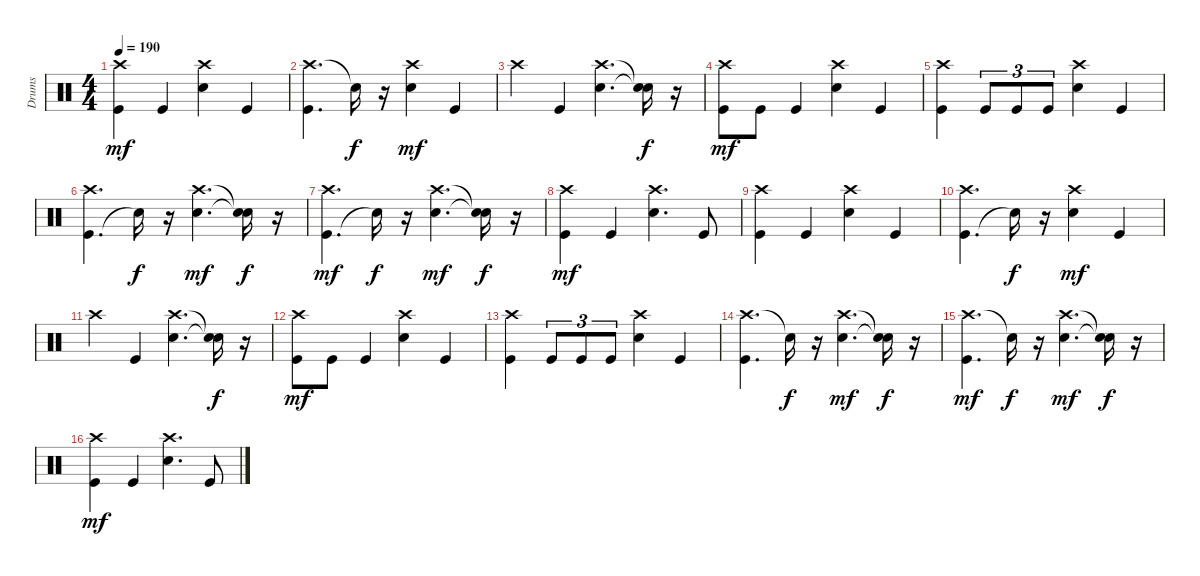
\track ("Drums" "Drums") {instrument percussion}
\staff {score}
\articulation defaults
\ts (4 4)
\tempo 190
\clef neutral
\ks c
("Crash high (hit)" "Kick (hit)").4{dy mf} "Kick (hit)".4 ("Snare (hit) 2" "Crash high (hit)").4 "Kick (hit)".4 |
("Crash high (hit)" "Kick (hit)").4{d} "Snare (hit)"{t}.16{dy f} r.16 ("Snare (hit) 2" "Crash high (hit)").4{dy mf} "Kick (hit)".4 |
"Crash high (hit)".4 "Kick (hit)".4 ("Snare (hit) 2" "Crash high (hit)").4{d} ("Snare (hit)"{t} "Snare (hit)"{t}).16{dy f} r.16 |
("Kick (hit)" "Crash high (hit)").8{dy mf} "Kick (hit)".8 "Kick (hit)".4 ("Snare (hit) 2" "Crash high (hit)").4 "Kick (hit)".4 |
("Kick (hit)" "Crash high (hit)").4 "Kick (hit)".8{tu (3 2)} "Kick (hit)".8{tu (3 2)} "Kick (hit)".8{tu (3 2)} ("Snare (hit) 2" "Crash high (hit)").4 "Kick (hit)".4 |
("Kick (hit)" "Crash high (hit)").4{d} "Snare (hit)"{t}.16{dy f} r.16 ("Snare (hit) 2" "Crash high (hit)").4{d dy mf} ("Snare (hit)"{t} "Snare (hit)"{t}).16{dy f} r.16 |
("Kick (hit)" "Crash high (hit)").4{d dy mf} "Snare (hit)"{t}.16{dy f} r.16 ("Snare (hit) 2" "Crash high (hit)").4{d dy mf} ("Snare (hit)"{t} "Snare (hit)"{t}).16{dy f} r.16 |
("Crash high (hit)" "Kick (hit)").4{dy mf} "Kick (hit)".4 ("Snare (hit) 2" "Crash high (hit)").4{d} "Kick (hit)".8 |
("Kick (hit)" "Crash high (hit)").4 "Kick (hit)".4 ("Snare (hit) 2" "Crash high (hit)").4 "Kick (hit)".4 |
("Kick (hit)" "Crash high (hit)").4{d} "Snare (hit)"{t}.16{dy f} r.16 ("Snare (hit) 2" "Crash high (hit)").4{dy mf} "Kick (hit)".4 |
"Crash high (hit)".4 "Kick (hit)".4 ("Snare (hit) 2" "Crash high (hit)").4{d} ("Snare (hit)"{t} "Snare (hit)"{t}).16{dy f} r.16 |
("Crash high (hit)" "Kick (hit)").8{dy mf} "Kick (hit)".8 "Kick (hit)".4 ("Snare (hit) 2" "Crash high (hit)").4 "Kick (hit)".4 |
("Crash high (hit)" "Kick (hit)").4 "Kick (hit)".8{tu (3 2)} "Kick (hit)".8{tu (3 2)} "Kick (hit)".8{tu (3 2)} ("Snare (hit) 2" "Crash high (hit)").4 "Kick (hit)".4 |
("Crash high (hit)" "Kick (hit)").4{d} "Snare (hit)"{t}.16{dy f} r.16 ("Snare (hit) 2" "Crash high (hit)").4{d dy mf} ("Snare (hit)"{t} "Snare (hit)"{t}).16{dy f} r.16 |
("Crash high (hit)" "Kick (hit)").4{d dy mf} "Snare (hit)"{t}.16{dy f} r.16 ("Snare (hit) 2" "Crash high (hit)").4{d dy mf} ("Snare (hit)"{t} "Snare (hit)"{t}).16{dy f} r.16 |
("Kick (hit)" "Crash high (hit)").4{dy mf} "Kick (hit)".4 ("Snare (hit) 2" "Crash high (hit)").4{d} "Kick (hit)".8
